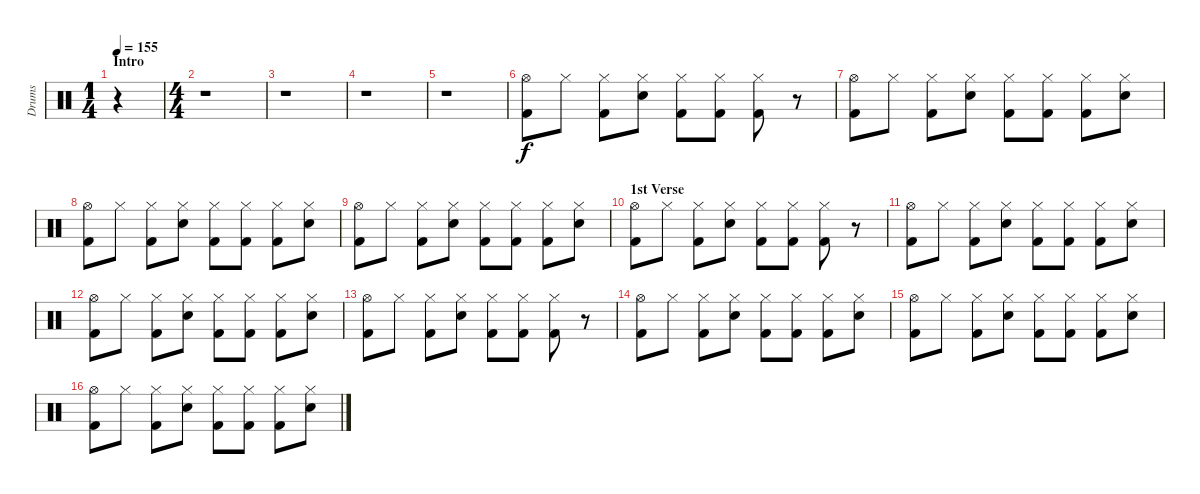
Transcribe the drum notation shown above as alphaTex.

\track ("Drums" "Drums") {instrument percussion}
\staff {score}
\articulation defaults
\ts (1 4)
\section ("" "Intro")
\tempo 155
\clef neutral
\ks c
r.4{dy f} |
\ts (4 4)
r.1 |
r.1 |
r.1 |
r.1 |
("Kick (hit) 2" "Hi-Hat (open)").8 "Hi-Hat (closed)".8 ("Kick (hit) 2" "Hi-Hat (closed)").8 ("Electric Snare (hit)" "Hi-Hat (closed)").8 ("Kick (hit) 2" "Hi-Hat (closed)").8 ("Kick (hit) 2" "Hi-Hat (closed)").8 ("Kick (hit) 2" "Hi-Hat (closed)").8 r.8 |
("Kick (hit) 2" "Hi-Hat (open)").8 "Hi-Hat (closed)".8 ("Kick (hit) 2" "Hi-Hat (closed)").8 ("Electric Snare (hit)" "Hi-Hat (closed)").8 ("Kick (hit) 2" "Hi-Hat (closed)").8 ("Kick (hit) 2" "Hi-Hat (closed)").8 ("Kick (hit) 2" "Hi-Hat (closed)").8 ("Electric Snare (hit)" "Hi-Hat (closed)").8 |
("Kick (hit) 2" "Hi-Hat (open)").8 "Hi-Hat (closed)".8 ("Kick (hit) 2" "Hi-Hat (closed)").8 ("Electric Snare (hit)" "Hi-Hat (closed)").8 ("Kick (hit) 2" "Hi-Hat (closed)").8 ("Kick (hit) 2" "Hi-Hat (closed)").8 ("Kick (hit) 2" "Hi-Hat (closed)").8 ("Electric Snare (hit)" "Hi-Hat (closed)").8 |
("Kick (hit) 2" "Hi-Hat (open)").8 "Hi-Hat (closed)".8 ("Kick (hit) 2" "Hi-Hat (closed)").8 ("Electric Snare (hit)" "Hi-Hat (closed)").8 ("Kick (hit) 2" "Hi-Hat (closed)").8 ("Kick (hit) 2" "Hi-Hat (closed)").8 ("Kick (hit) 2" "Hi-Hat (closed)").8 ("Electric Snare (hit)" "Hi-Hat (closed)").8 |
\section ("" "1st Verse")
("Kick (hit) 2" "Hi-Hat (open)").8 "Hi-Hat (closed)".8 ("Kick (hit) 2" "Hi-Hat (closed)").8 ("Electric Snare (hit)" "Hi-Hat (closed)").8 ("Kick (hit) 2" "Hi-Hat (closed)").8 ("Kick (hit) 2" "Hi-Hat (closed)").8 ("Kick (hit) 2" "Hi-Hat (closed)").8 r.8 |
("Kick (hit) 2" "Hi-Hat (open)").8 "Hi-Hat (closed)".8 ("Kick (hit) 2" "Hi-Hat (closed)").8 ("Electric Snare (hit)" "Hi-Hat (closed)").8 ("Kick (hit) 2" "Hi-Hat (closed)").8 ("Kick (hit) 2" "Hi-Hat (closed)").8 ("Kick (hit) 2" "Hi-Hat (closed)").8 ("Electric Snare (hit)" "Hi-Hat (closed)").8 |
("Kick (hit) 2" "Hi-Hat (open)").8 "Hi-Hat (closed)".8 ("Kick (hit) 2" "Hi-Hat (closed)").8 ("Electric Snare (hit)" "Hi-Hat (closed)").8 ("Kick (hit) 2" "Hi-Hat (closed)").8 ("Kick (hit) 2" "Hi-Hat (closed)").8 ("Kick (hit) 2" "Hi-Hat (closed)").8 ("Electric Snare (hit)" "Hi-Hat (closed)").8 |
("Kick (hit) 2" "Hi-Hat (open)").8 "Hi-Hat (closed)".8 ("Kick (hit) 2" "Hi-Hat (closed)").8 ("Electric Snare (hit)" "Hi-Hat (closed)").8 ("Kick (hit) 2" "Hi-Hat (closed)").8 ("Kick (hit) 2" "Hi-Hat (closed)").8 ("Kick (hit) 2" "Hi-Hat (closed)").8 r.8 |
("Kick (hit) 2" "Hi-Hat (open)").8 "Hi-Hat (closed)".8 ("Kick (hit) 2" "Hi-Hat (closed)").8 ("Electric Snare (hit)" "Hi-Hat (closed)").8 ("Kick (hit) 2" "Hi-Hat (closed)").8 ("Kick (hit) 2" "Hi-Hat (closed)").8 ("Kick (hit) 2" "Hi-Hat (closed)").8 ("Electric Snare (hit)" "Hi-Hat (closed)").8 |
("Kick (hit) 2" "Hi-Hat (open)").8 "Hi-Hat (closed)".8 ("Kick (hit) 2" "Hi-Hat (closed)").8 ("Electric Snare (hit)" "Hi-Hat (closed)").8 ("Kick (hit) 2" "Hi-Hat (closed)").8 ("Kick (hit) 2" "Hi-Hat (closed)").8 ("Kick (hit) 2" "Hi-Hat (closed)").8 ("Electric Snare (hit)" "Hi-Hat (closed)").8 |
("Kick (hit) 2" "Hi-Hat (open)").8 "Hi-Hat (closed)".8 ("Kick (hit) 2" "Hi-Hat (closed)").8 ("Electric Snare (hit)" "Hi-Hat (closed)").8 ("Kick (hit) 2" "Hi-Hat (closed)").8 ("Kick (hit) 2" "Hi-Hat (closed)").8 ("Kick (hit) 2" "Hi-Hat (closed)").8 ("Electric Snare (hit)" "Hi-Hat (closed)").8
